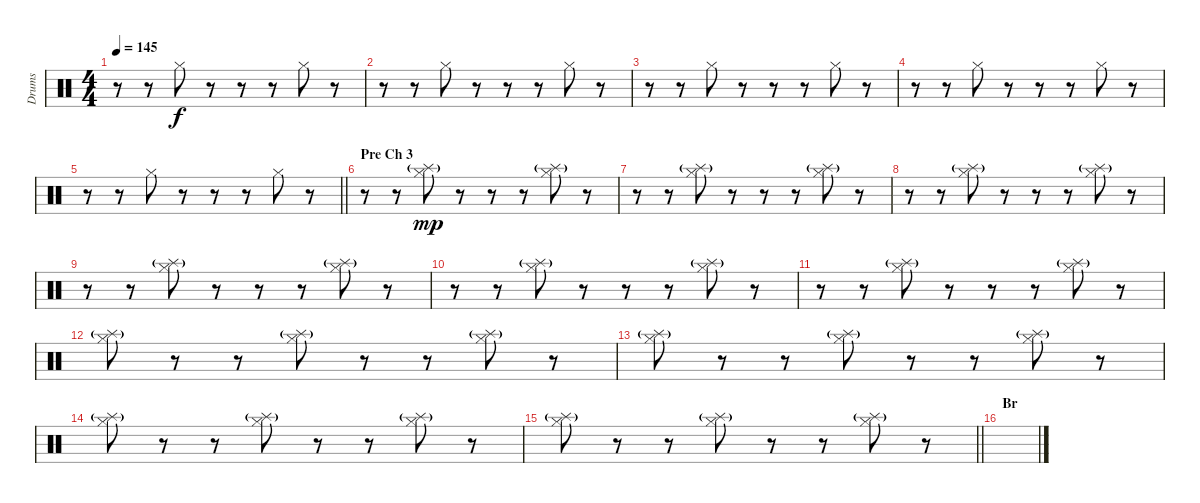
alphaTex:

\track ("Drums" "Drums") {instrument percussion}
\staff {score}
\articulation defaults
\ts (4 4)
\tempo 145
\clef neutral
\ks c
r.8{dy f} r.8 "Hi-Hat (closed)".8 r.8 r.8 r.8 "Hi-Hat (closed)".8 r.8 |
r.8 r.8 "Hi-Hat (closed)".8 r.8 r.8 r.8 "Hi-Hat (closed)".8 r.8 |
r.8 r.8 "Hi-Hat (closed)".8 r.8 r.8 r.8 "Hi-Hat (closed)".8 r.8 |
r.8 r.8 "Hi-Hat (closed)".8 r.8 r.8 r.8 "Hi-Hat (closed)".8 r.8 |
\barLineRight lightlight
r.8 r.8 "Hi-Hat (closed)".8 r.8 r.8 r.8 "Hi-Hat (closed)".8 r.8 |
\section ("" "Pre Ch 3")
r.8 r.8 ("Hi-Hat (closed)" "Splash (hit)"{g}).8{dy mp} r.8 r.8 r.8 ("Hi-Hat (closed)" "Splash (hit)"{g}).8 r.8 |
r.8 r.8 ("Hi-Hat (closed)" "Splash (hit)"{g}).8 r.8 r.8 r.8 ("Hi-Hat (closed)" "Splash (hit)"{g}).8 r.8 |
r.8 r.8 ("Hi-Hat (closed)" "Splash (hit)"{g}).8 r.8 r.8 r.8 ("Hi-Hat (closed)" "Splash (hit)"{g}).8 r.8 |
r.8 r.8 ("Hi-Hat (closed)" "Splash (hit)"{g}).8 r.8 r.8 r.8 ("Hi-Hat (closed)" "Splash (hit)"{g}).8 r.8 |
r.8 r.8 ("Hi-Hat (closed)" "Splash (hit)"{g}).8 r.8 r.8 r.8 ("Hi-Hat (closed)" "Splash (hit)"{g}).8 r.8 |
r.8 r.8 ("Hi-Hat (closed)" "Splash (hit)"{g}).8 r.8 r.8 r.8 ("Hi-Hat (closed)" "Splash (hit)"{g}).8 r.8 |
("Hi-Hat (closed)" "Splash (hit)"{g}).8 r.8 r.8 ("Hi-Hat (closed)" "Splash (hit)"{g}).8 r.8 r.8 ("Hi-Hat (closed)" "Splash (hit)"{g}).8 r.8 |
("Hi-Hat (closed)" "Splash (hit)"{g}).8 r.8 r.8 ("Hi-Hat (closed)" "Splash (hit)"{g}).8 r.8 r.8 ("Hi-Hat (closed)" "Splash (hit)"{g}).8 r.8 |
("Hi-Hat (closed)" "Splash (hit)"{g}).8 r.8 r.8 ("Hi-Hat (closed)" "Splash (hit)"{g}).8 r.8 r.8 ("Hi-Hat (closed)" "Splash (hit)"{g}).8 r.8 |
\barLineRight lightlight
("Hi-Hat (closed)" "Splash (hit)"{g}).8 r.8 r.8 ("Hi-Hat (closed)" "Splash (hit)"{g}).8 r.8 r.8 ("Hi-Hat (closed)" "Splash (hit)"{g}).8 r.8 |
\section ("" "Br")
